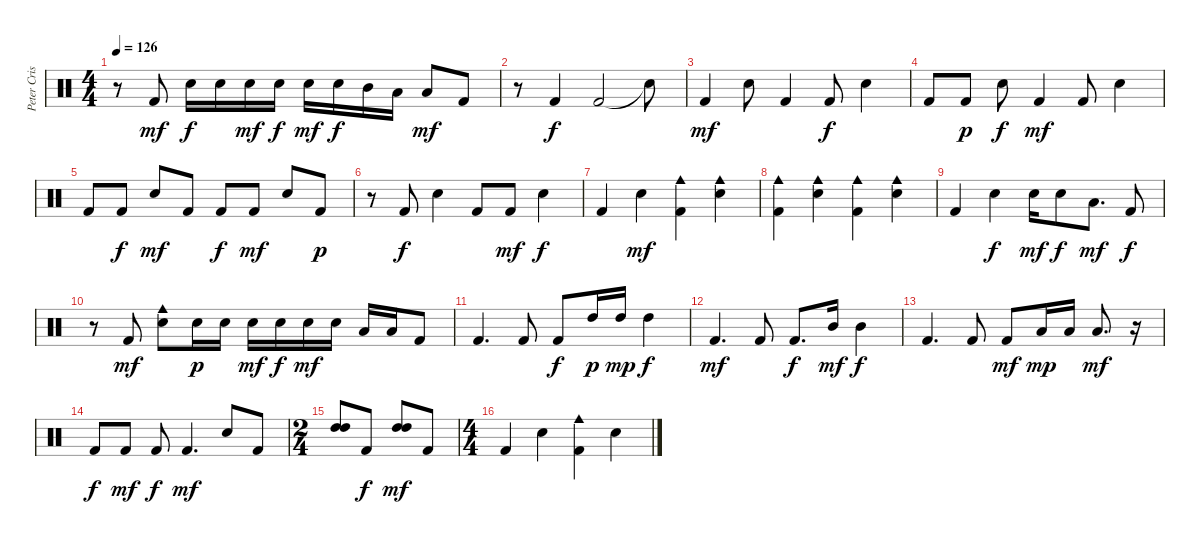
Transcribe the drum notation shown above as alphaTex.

\track ("Peter Criss" "Peter Cris") {instrument percussion}
\staff {score}
\articulation defaults
\ts (4 4)
\tempo 126
\clef neutral
\ks c
r.8{dy mf} "Kick (hit) 2".8 "Electric Snare (hit)".16{dy f} "Electric Snare (hit)".16 "Electric Snare (hit)".16{dy mf} "Electric Snare (hit)".16{dy f} "Electric Snare (hit)".16{dy mf} "Electric Snare (hit)".16{dy f} "Mid Tom (hit)".16 "Low Tom (hit)".16 "Low Tom (hit)".8{dy mf} "Kick (hit) 2".8 |
r.8 "Kick (hit) 2".4{dy f} "Kick (hit) 2".2 "Snare (hit)"{t}.8 |
"Kick (hit) 2".4{dy mf} "Electric Snare (hit)".8 "Kick (hit) 2".4 "Kick (hit) 2".8{dy f} "Electric Snare (hit)".4 |
"Kick (hit) 2".8 "Kick (hit) 2".8{dy p} "Electric Snare (hit)".8{dy f} "Kick (hit) 2".4{dy mf} "Kick (hit) 2".8 "Electric Snare (hit)".4 |
"Kick (hit) 2".8 "Kick (hit) 2".8{dy f} "Electric Snare (hit)".8{dy mf} "Kick (hit) 2".8 "Kick (hit) 2".8{dy f} "Kick (hit) 2".8{dy mf} "Electric Snare (hit)".8 "Kick (hit) 2".8{dy p} |
r.8 "Kick (hit) 2".8{dy f} "Electric Snare (hit)".4 "Kick (hit) 2".8 "Kick (hit) 2".8{dy mf} "Electric Snare (hit)".4{dy f} |
"Kick (hit) 2".4 "Electric Snare (hit)".4{dy mf} ("Cowbell medium (hit)" "Kick (hit) 2").4 ("Cowbell medium (hit)" "Electric Snare (hit)").4 |
("Cowbell medium (hit)" "Kick (hit) 2").4 ("Cowbell medium (hit)" "Electric Snare (hit)").4 ("Cowbell medium (hit)" "Kick (hit) 2").4 ("Cowbell medium (hit)" "Electric Snare (hit)").4 |
"Kick (hit) 2".4 "Electric Snare (hit)".4{dy f} "Electric Snare (hit)".16{dy mf} "Electric Snare (hit)".8{dy f} "Low Tom (hit)".8{d dy mf} "Kick (hit) 2".8{dy f} |
r.8 "Kick (hit) 2".8{dy mf} ("Cowbell medium (hit)" "Electric Snare (hit)").8 "Electric Snare (hit)".16{dy p} "Electric Snare (hit)".16 "Electric Snare (hit)".16{dy mf} "Electric Snare (hit)".16{dy f} "Electric Snare (hit)".16{dy mf} "Electric Snare (hit)".16 "Low Tom (hit)".16 "Low Tom (hit)".16 "Kick (hit) 2".8 |
"Kick (hit) 2".4{d} "Kick (hit) 2".8 "Kick (hit) 2".8{dy f} "High Tom (hit)".16{dy p} "High Tom (hit)".16{dy mp} "High Tom (hit)".4{dy f} |
"Kick (hit) 2".4{d dy mf} "Kick (hit) 2".8 "Kick (hit) 2".8{d dy f} "Mid Tom (hit)".16{dy mf} "Mid Tom (hit)".4{dy f} |
"Kick (hit) 2".4{d} "Kick (hit) 2".8 "Kick (hit) 2".8{dy mf} "Low Tom (hit)".16{dy mp} "Low Tom (hit)".16 "Low Tom (hit)".8{d dy mf} r.16 |
"Kick (hit) 2".8{dy f} "Kick (hit) 2".8{dy mf} "Kick (hit) 2".8{dy f} "Kick (hit) 2".4{d dy mf} "Electric Snare (hit)".8 "Kick (hit) 2".8 |
\ts (2 4)
("High Tom (hit)" "High Tom (hit)").8 "Kick (hit) 2".8{dy f} ("High Tom (hit)" "High Tom (hit)").8{dy mf} "Kick (hit) 2".8 |
\ts (4 4)
"Kick (hit) 2".4 "Electric Snare (hit)".4 ("Cowbell medium (hit)" "Kick (hit) 2").4 "Electric Snare (hit)".4
